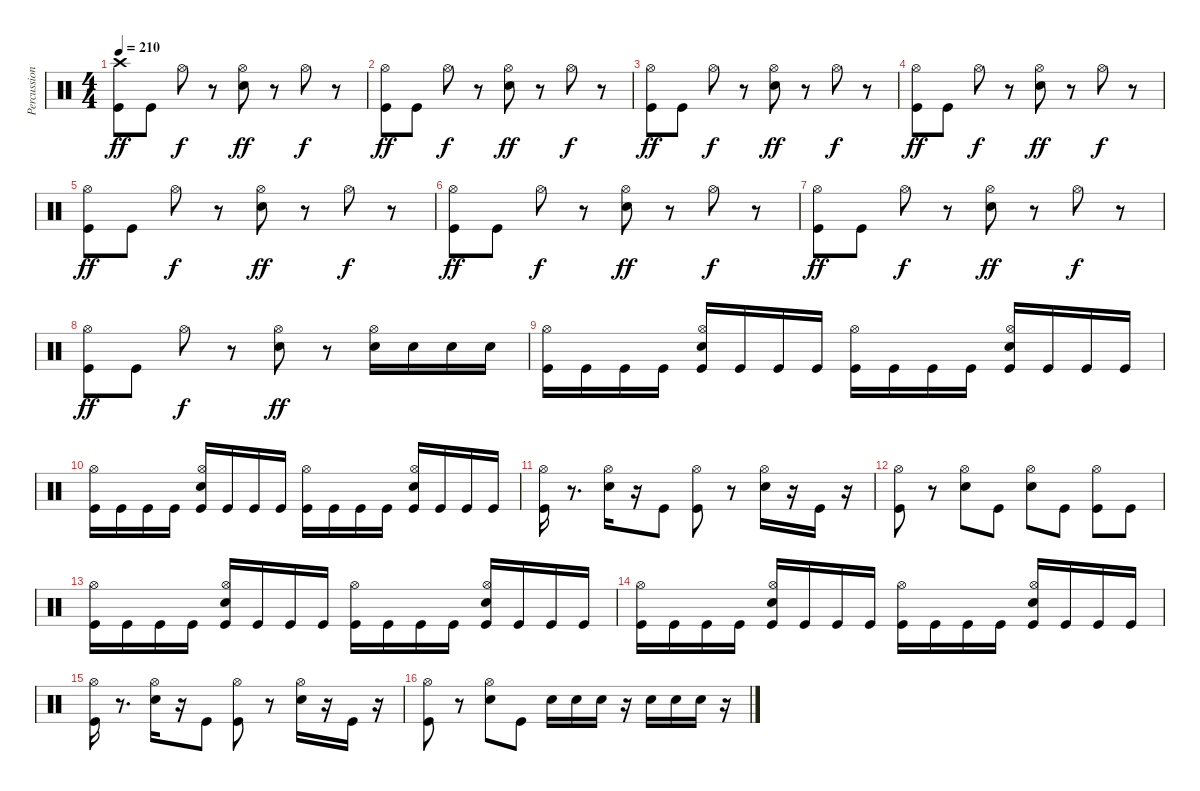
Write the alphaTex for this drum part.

\track ("Percussion" "Percussion") {instrument percussion}
\staff {score}
\articulation defaults
\ts (4 4)
\tempo 210
\clef neutral
\ks c
("Crash high (hit)" "Kick (hit)").8{dy ff} "Kick (hit)".8 "Hi-Hat (open)".8{dy f} r.8 ("Hi-Hat (open)" "Snare (hit) 2").8{dy ff} r.8 "Hi-Hat (open)".8{dy f} r.8 |
("Hi-Hat (open)" "Kick (hit)").8{dy ff} "Kick (hit)".8 "Hi-Hat (open)".8{dy f} r.8 ("Hi-Hat (open)" "Snare (hit) 2").8{dy ff} r.8 "Hi-Hat (open)".8{dy f} r.8 |
("Hi-Hat (open)" "Kick (hit)").8{dy ff} "Kick (hit)".8 "Hi-Hat (open)".8{dy f} r.8 ("Hi-Hat (open)" "Snare (hit) 2").8{dy ff} r.8 "Hi-Hat (open)".8{dy f} r.8 |
("Hi-Hat (open)" "Kick (hit)").8{dy ff} "Kick (hit)".8 "Hi-Hat (open)".8{dy f} r.8 ("Hi-Hat (open)" "Snare (hit) 2").8{dy ff} r.8 "Hi-Hat (open)".8{dy f} r.8 |
("Hi-Hat (open)" "Kick (hit)").8{dy ff} "Kick (hit)".8 "Hi-Hat (open)".8{dy f} r.8 ("Hi-Hat (open)" "Snare (hit) 2").8{dy ff} r.8 "Hi-Hat (open)".8{dy f} r.8 |
("Hi-Hat (open)" "Kick (hit)").8{dy ff} "Kick (hit)".8 "Hi-Hat (open)".8{dy f} r.8 ("Hi-Hat (open)" "Snare (hit) 2").8{dy ff} r.8 "Hi-Hat (open)".8{dy f} r.8 |
("Hi-Hat (open)" "Kick (hit)").8{dy ff} "Kick (hit)".8 "Hi-Hat (open)".8{dy f} r.8 ("Hi-Hat (open)" "Snare (hit) 2").8{dy ff} r.8 "Hi-Hat (open)".8{dy f} r.8 |
("Hi-Hat (open)" "Kick (hit)").8{dy ff} "Kick (hit)".8 "Hi-Hat (open)".8{dy f} r.8 ("Hi-Hat (open)" "Snare (hit) 2").8{dy ff} r.8 ("Snare (hit) 2" "Hi-Hat (open)").16 "Snare (hit) 2".16 "Snare (hit) 2".16 "Snare (hit) 2".16 |
("Hi-Hat (open)" "Kick (hit)").16 "Kick (hit)".16 "Kick (hit)".16 "Kick (hit)".16 ("Snare (hit) 2" "Hi-Hat (open)" "Kick (hit)").16 "Kick (hit)".16 "Kick (hit)".16 "Kick (hit)".16 ("Hi-Hat (open)" "Kick (hit)").16 "Kick (hit)".16 "Kick (hit)".16 "Kick (hit)".16 ("Snare (hit) 2" "Hi-Hat (open)" "Kick (hit)").16 "Kick (hit)".16 "Kick (hit)".16 "Kick (hit)".16 |
("Hi-Hat (open)" "Kick (hit)").16 "Kick (hit)".16 "Kick (hit)".16 "Kick (hit)".16 ("Snare (hit) 2" "Hi-Hat (open)" "Kick (hit)").16 "Kick (hit)".16 "Kick (hit)".16 "Kick (hit)".16 ("Hi-Hat (open)" "Kick (hit)").16 "Kick (hit)".16 "Kick (hit)".16 "Kick (hit)".16 ("Snare (hit) 2" "Hi-Hat (open)" "Kick (hit)").16 "Kick (hit)".16 "Kick (hit)".16 "Kick (hit)".16 |
("Hi-Hat (open)" "Kick (hit)").16 r.8{d} ("Hi-Hat (open)" "Snare (hit) 2").16 r.16 "Kick (hit)".8 ("Kick (hit)" "Hi-Hat (open)").8 r.8 ("Hi-Hat (open)" "Snare (hit) 2").16 r.16 "Kick (hit)".16 r.16 |
("Hi-Hat (open)" "Kick (hit)").8 r.8 ("Hi-Hat (open)" "Snare (hit) 2").8 "Kick (hit)".8 ("Hi-Hat (open)" "Snare (hit) 2").8 "Kick (hit)".8 ("Hi-Hat (open)" "Kick (hit)").8 "Kick (hit)".8 |
("Hi-Hat (open)" "Kick (hit)").16 "Kick (hit)".16 "Kick (hit)".16 "Kick (hit)".16 ("Snare (hit) 2" "Hi-Hat (open)" "Kick (hit)").16 "Kick (hit)".16 "Kick (hit)".16 "Kick (hit)".16 ("Hi-Hat (open)" "Kick (hit)").16 "Kick (hit)".16 "Kick (hit)".16 "Kick (hit)".16 ("Snare (hit) 2" "Hi-Hat (open)" "Kick (hit)").16 "Kick (hit)".16 "Kick (hit)".16 "Kick (hit)".16 |
("Hi-Hat (open)" "Kick (hit)").16 "Kick (hit)".16 "Kick (hit)".16 "Kick (hit)".16 ("Snare (hit) 2" "Hi-Hat (open)" "Kick (hit)").16 "Kick (hit)".16 "Kick (hit)".16 "Kick (hit)".16 ("Hi-Hat (open)" "Kick (hit)").16 "Kick (hit)".16 "Kick (hit)".16 "Kick (hit)".16 ("Snare (hit) 2" "Hi-Hat (open)" "Kick (hit)").16 "Kick (hit)".16 "Kick (hit)".16 "Kick (hit)".16 |
("Hi-Hat (open)" "Kick (hit)").16 r.8{d} ("Hi-Hat (open)" "Snare (hit) 2").16 r.16 "Kick (hit)".8 ("Kick (hit)" "Hi-Hat (open)").8 r.8 ("Hi-Hat (open)" "Snare (hit) 2").16 r.16 "Kick (hit)".16 r.16 |
("Hi-Hat (open)" "Kick (hit)").8 r.8 ("Hi-Hat (open)" "Snare (hit) 2").8 "Kick (hit)".8 "Snare (hit) 2".16 "Snare (hit) 2".16 "Snare (hit) 2".16 r.16 "Snare (hit) 2".16 "Snare (hit) 2".16 "Snare (hit) 2".16 r.16
